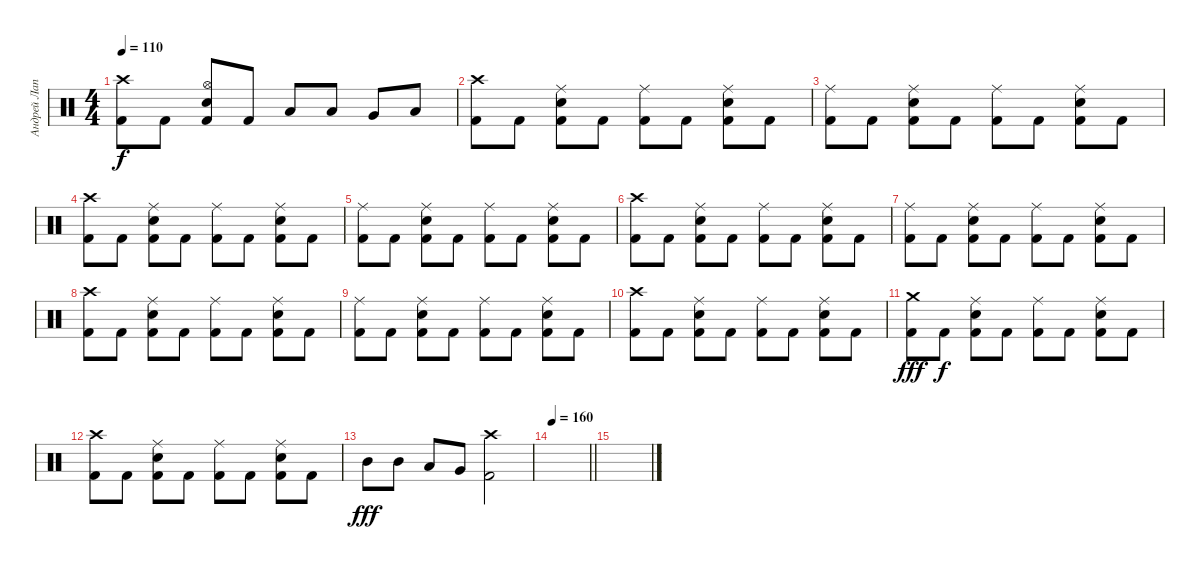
\track ("Андрей Лаптев" "Андрей Лап") {instrument percussion}
\staff {score}
\articulation defaults
\ts (4 4)
\tempo 110
\clef neutral
\ks c
("Crash high (hit)" "Kick (hit) 2").8{dy f} "Kick (hit) 2".8 ("Hi-Hat (open)" "Electric Snare (hit)" "Kick (hit) 2").8 "Kick (hit) 2".8 "Low Tom (hit)".8 "Low Tom (hit)".8 "Very Low Tom (hit)".8 "Low Floor Tom (hit)".8 |
("Crash high (hit)" "Kick (hit) 2").8 "Kick (hit) 2".8 ("Ride (middle)" "Electric Snare (hit)" "Kick (hit) 2").8 "Kick (hit) 2".8 ("Ride (middle)" "Kick (hit) 2").8 "Kick (hit) 2".8 ("Ride (middle)" "Electric Snare (hit)" "Kick (hit) 2").8 "Kick (hit) 2".8 |
("Ride (middle)" "Kick (hit) 2").8 "Kick (hit) 2".8 ("Ride (middle)" "Electric Snare (hit)" "Kick (hit) 2").8 "Kick (hit) 2".8 ("Ride (middle)" "Kick (hit) 2").8 "Kick (hit) 2".8 ("Ride (middle)" "Electric Snare (hit)" "Kick (hit) 2").8 "Kick (hit) 2".8 |
("Crash high (hit)" "Kick (hit) 2").8 "Kick (hit) 2".8 ("Ride (middle)" "Electric Snare (hit)" "Kick (hit) 2").8 "Kick (hit) 2".8 ("Ride (middle)" "Kick (hit) 2").8 "Kick (hit) 2".8 ("Ride (middle)" "Electric Snare (hit)" "Kick (hit) 2").8 "Kick (hit) 2".8 |
("Ride (middle)" "Kick (hit) 2").8 "Kick (hit) 2".8 ("Ride (middle)" "Electric Snare (hit)" "Kick (hit) 2").8 "Kick (hit) 2".8 ("Ride (middle)" "Kick (hit) 2").8 "Kick (hit) 2".8 ("Ride (middle)" "Electric Snare (hit)" "Kick (hit) 2").8 "Kick (hit) 2".8 |
("Crash high (hit)" "Kick (hit) 2").8 "Kick (hit) 2".8 ("Ride (middle)" "Electric Snare (hit)" "Kick (hit) 2").8 "Kick (hit) 2".8 ("Ride (middle)" "Kick (hit) 2").8 "Kick (hit) 2".8 ("Ride (middle)" "Electric Snare (hit)" "Kick (hit) 2").8 "Kick (hit) 2".8 |
("Ride (middle)" "Kick (hit) 2").8 "Kick (hit) 2".8 ("Ride (middle)" "Electric Snare (hit)" "Kick (hit) 2").8 "Kick (hit) 2".8 ("Ride (middle)" "Kick (hit) 2").8 "Kick (hit) 2".8 ("Ride (middle)" "Electric Snare (hit)" "Kick (hit) 2").8 "Kick (hit) 2".8 |
("Crash high (hit)" "Kick (hit) 2").8 "Kick (hit) 2".8 ("Ride (middle)" "Electric Snare (hit)" "Kick (hit) 2").8 "Kick (hit) 2".8 ("Ride (middle)" "Kick (hit) 2").8 "Kick (hit) 2".8 ("Ride (middle)" "Electric Snare (hit)" "Kick (hit) 2").8 "Kick (hit) 2".8 |
("Ride (middle)" "Kick (hit) 2").8 "Kick (hit) 2".8 ("Ride (middle)" "Electric Snare (hit)" "Kick (hit) 2").8 "Kick (hit) 2".8 ("Ride (middle)" "Kick (hit) 2").8 "Kick (hit) 2".8 ("Ride (middle)" "Electric Snare (hit)" "Kick (hit) 2").8 "Kick (hit) 2".8 |
("Crash high (hit)" "Kick (hit) 2").8 "Kick (hit) 2".8 ("Ride (middle)" "Electric Snare (hit)" "Kick (hit) 2").8 "Kick (hit) 2".8 ("Ride (middle)" "Kick (hit) 2").8 "Kick (hit) 2".8 ("Ride (middle)" "Electric Snare (hit)" "Kick (hit) 2").8 "Kick (hit) 2".8 |
("Crash medium (hit)" "Kick (hit) 2").8{dy fff} "Kick (hit) 2".8{dy f} ("Ride (middle)" "Electric Snare (hit)" "Kick (hit) 2").8 "Kick (hit) 2".8 ("Ride (middle)" "Kick (hit) 2").8 "Kick (hit) 2".8 ("Ride (middle)" "Electric Snare (hit)" "Kick (hit) 2").8 "Kick (hit) 2".8 |
("Crash high (hit)" "Kick (hit) 2").8 "Kick (hit) 2".8 ("Ride (middle)" "Electric Snare (hit)" "Kick (hit) 2").8 "Kick (hit) 2".8 ("Ride (middle)" "Kick (hit) 2").8 "Kick (hit) 2".8 ("Ride (middle)" "Electric Snare (hit)" "Kick (hit) 2").8 "Kick (hit) 2".8 |
"Mid Tom (hit)".8{dy fff} "Mid Tom (hit)".8 "Low Tom (hit)".8 "Very Low Tom (hit)".8 ("Crash high (hit)" "Kick (hit) 2").2 |
\tempo 160
\barLineRight lightlight
|
\section ("" "")
